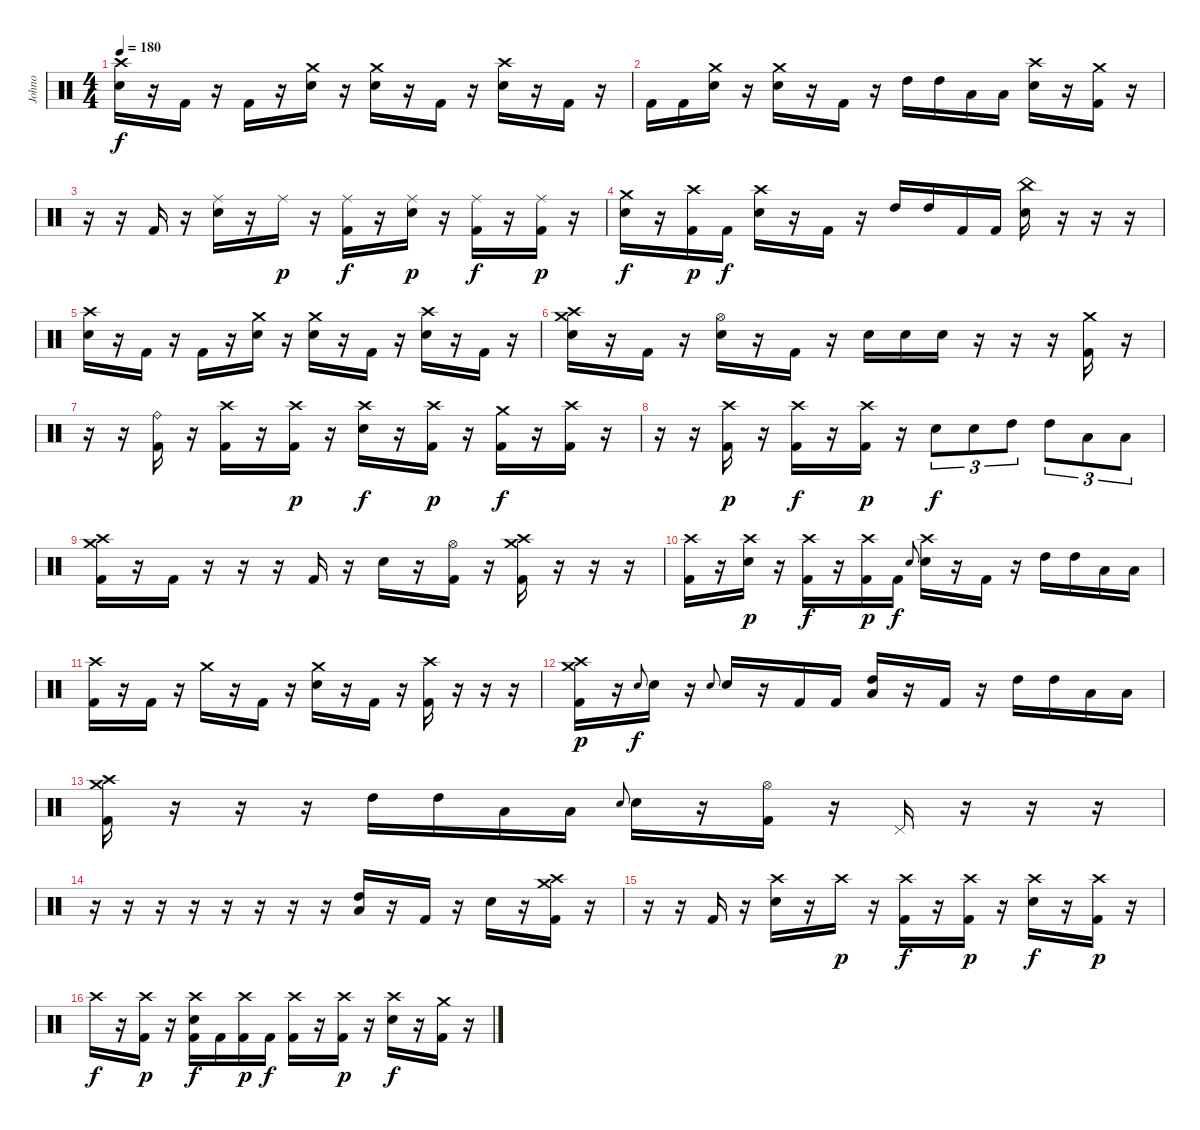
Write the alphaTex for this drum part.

\track (" Johno" " Johno") {instrument percussion}
\staff {score}
\articulation defaults
\ts (4 4)
\tempo 180
\clef neutral
\ks c
("Crash high (hit)" "Electric Snare (hit)").16{dy f} r.16 "Kick (hit) 2".16 r.16 "Kick (hit) 2".16 r.16 ("Crash medium (hit)" "Electric Snare (hit)").16 r.16 ("Crash medium (hit)" "Electric Snare (hit)").16 r.16 "Kick (hit) 2".16 r.16 ("Crash high (hit)" "Electric Snare (hit)").16 r.16 "Kick (hit) 2".16 r.16 |
"Kick (hit) 2".16 "Kick (hit) 2".16 ("Crash medium (hit)" "Electric Snare (hit)").16 r.16 ("Crash medium (hit)" "Electric Snare (hit)").16 r.16 "Kick (hit) 2".16 r.16 "High Tom (hit)".16 "High Tom (hit)".16 "Low Floor Tom (hit)".16 "Low Floor Tom (hit)".16 ("Crash high (hit)" "Electric Snare (hit)").16 r.16 ("Crash medium (hit)" "Kick (hit) 2").16 r.16 |
r.16 r.16 "Kick (hit) 2".16 r.16 ("Ride (middle)" "Electric Snare (hit)").16 r.16 "Ride (middle)".16{dy p} r.16 ("Ride (middle)" "Kick (hit) 2").16{dy f} r.16 ("Ride (middle)" "Electric Snare (hit)").16{dy p} r.16 ("Ride (middle)" "Kick (hit) 2").16{dy f} r.16 ("Ride (middle)" "Kick (hit) 2").16{dy p} r.16 |
("Crash medium (hit)" "Electric Snare (hit)").16{dy f} r.16 ("Crash high (hit)" "Kick (hit) 2").16{dy p} "Kick (hit) 2".16{dy f} ("Crash high (hit)" "Electric Snare (hit)").16 r.16 "Kick (hit) 2".16 r.16 "High Tom (hit)".16 "High Tom (hit)".16 "Kick (hit) 2".16 "Kick (hit) 2".16 ("China (hit)" "Electric Snare (hit)").16 r.16 r.16 r.16 |
("Crash high (hit)" "Electric Snare (hit)").16 r.16 "Kick (hit) 2".16 r.16 "Kick (hit) 2".16 r.16 ("Crash medium (hit)" "Electric Snare (hit)").16 r.16 ("Crash medium (hit)" "Electric Snare (hit)").16 r.16 "Kick (hit) 2".16 r.16 ("Crash high (hit)" "Electric Snare (hit)").16 r.16 "Kick (hit) 2".16 r.16 |
("Crash medium (hit)" "Crash high (hit)" "Electric Snare (hit)").16 r.16 "Kick (hit) 2".16 r.16 ("Hi-Hat (open)" "Electric Snare (hit)").16 r.16 "Kick (hit) 2".16 r.16 "Electric Snare (hit)".16 "Electric Snare (hit)".16 "Electric Snare (hit)".16 r.16 r.16 r.16 ("Crash medium (hit)" "Kick (hit) 2").16 r.16 |
r.16 r.16 ("Ride (bell)" "Kick (hit) 2").16 r.16 ("Crash high (hit)" "Kick (hit) 2").16 r.16 ("Crash high (hit)" "Kick (hit) 2").16{dy p} r.16 ("Crash high (hit)" "Electric Snare (hit)").16{dy f} r.16 ("Crash high (hit)" "Kick (hit) 2").16{dy p} r.16 ("Crash medium (hit)" "Kick (hit) 2").16{dy f} r.16 ("Crash high (hit)" "Kick (hit) 2").16 r.16 |
r.16 r.16 ("Crash high (hit)" "Kick (hit) 2").16{dy p} r.16 ("Crash high (hit)" "Kick (hit) 2").16{dy f} r.16 ("Crash high (hit)" "Kick (hit) 2").16{dy p} r.16 "Electric Snare (hit)".8{tu (3 2) dy f} "Electric Snare (hit)".8{tu (3 2)} "High Tom (hit)".8{tu (3 2)} "High Tom (hit)".8{tu (3 2)} "Low Floor Tom (hit)".8{tu (3 2)} "Low Floor Tom (hit)".8{tu (3 2)} |
("Crash medium (hit)" "Crash high (hit)" "Kick (hit) 2").16 r.16 "Kick (hit) 2".16 r.16 r.16 r.16 "Kick (hit) 2".16 r.16 "Electric Snare (hit)".16 r.16 ("Hi-Hat (open)" "Kick (hit) 2").16 r.16 ("Crash medium (hit)" "Crash high (hit)" "Kick (hit) 2").16 r.16 r.16 r.16 |
("Crash high (hit)" "Kick (hit) 2").16 r.16 ("Crash high (hit)" "Electric Snare (hit)").16{dy p} r.16 ("Crash high (hit)" "Kick (hit) 2").16{dy f} r.16 ("Crash high (hit)" "Kick (hit) 2").16{dy p} "Kick (hit) 2".16{dy f} "Electric Snare (hit)".8{gr onbeat} ("Crash high (hit)" "Electric Snare (hit)").16 r.16 "Kick (hit) 2".16 r.16 "High Tom (hit)".16 "High Tom (hit)".16 "Low Floor Tom (hit)".16 "Low Floor Tom (hit)".16 |
("Crash high (hit)" "Kick (hit) 2").16 r.16 "Kick (hit) 2".16 r.16 "Crash medium (hit)".16 r.16 "Kick (hit) 2".16 r.16 ("Crash medium (hit)" "Electric Snare (hit)").16 r.16 "Kick (hit) 2".16 r.16 ("Crash high (hit)" "Kick (hit) 2").16 r.16 r.16 r.16 |
("Crash high (hit)" "Crash medium (hit)" "Kick (hit) 2").16{dy p} r.16 "Electric Snare (hit)".8{gr onbeat dy f} "Electric Snare (hit)".16 r.16 "Electric Snare (hit)".8{gr onbeat} "Electric Snare (hit)".16 r.16 "Kick (hit) 2".16 "Kick (hit) 2".16 ("High Tom (hit)" "Low Floor Tom (hit)").16 r.16 "Kick (hit) 2".16 r.16 "High Tom (hit)".16 "High Tom (hit)".16 "Low Floor Tom (hit)".16 "Low Floor Tom (hit)".16 |
("Crash medium (hit)" "Crash high (hit)" "Kick (hit) 2").16 r.16 r.16 r.16 "High Tom (hit)".16 "High Tom (hit)".16 "Low Floor Tom (hit)".16 "Low Floor Tom (hit)".16 "Electric Snare (hit)".8{gr onbeat} "Electric Snare (hit)".16 r.16 ("Hi-Hat (open)" "Kick (hit) 2").16 r.16 "Pedal Hi-Hat (hit)".16 r.16 r.16 r.16 |
r.16 r.16 r.16 r.16 r.16 r.16 r.16 r.16 ("High Tom (hit)" "Low Floor Tom (hit)").16 r.16 "Kick (hit) 2".16 r.16 "Electric Snare (hit)".16 r.16 ("Crash high (hit)" "Crash medium (hit)" "Kick (hit) 2").16 r.16 |
r.16 r.16 "Kick (hit) 2".16 r.16 ("Crash high (hit)" "Electric Snare (hit)").16 r.16 "Crash high (hit)".16{dy p} r.16 ("Crash high (hit)" "Kick (hit) 2").16{dy f} r.16 ("Crash high (hit)" "Kick (hit) 2").16{dy p} r.16 ("Crash high (hit)" "Electric Snare (hit)").16{dy f} r.16 ("Crash high (hit)" "Kick (hit) 2").16{dy p} r.16 |
"Crash high (hit)".16{dy f} r.16 ("Crash high (hit)" "Kick (hit) 2").16{dy p} r.16 ("Crash high (hit)" "Electric Snare (hit)" "Kick (hit) 2").16{dy f} "Kick (hit) 2".16 ("Crash high (hit)" "Kick (hit) 2").16{dy p} "Kick (hit) 2".16{dy f} ("Crash high (hit)" "Kick (hit) 2").16 r.16 ("Crash high (hit)" "Kick (hit) 2").16{dy p} r.16 ("Crash high (hit)" "Electric Snare (hit)").16{dy f} r.16 ("Crash medium (hit)" "Kick (hit) 2").16 r.16
